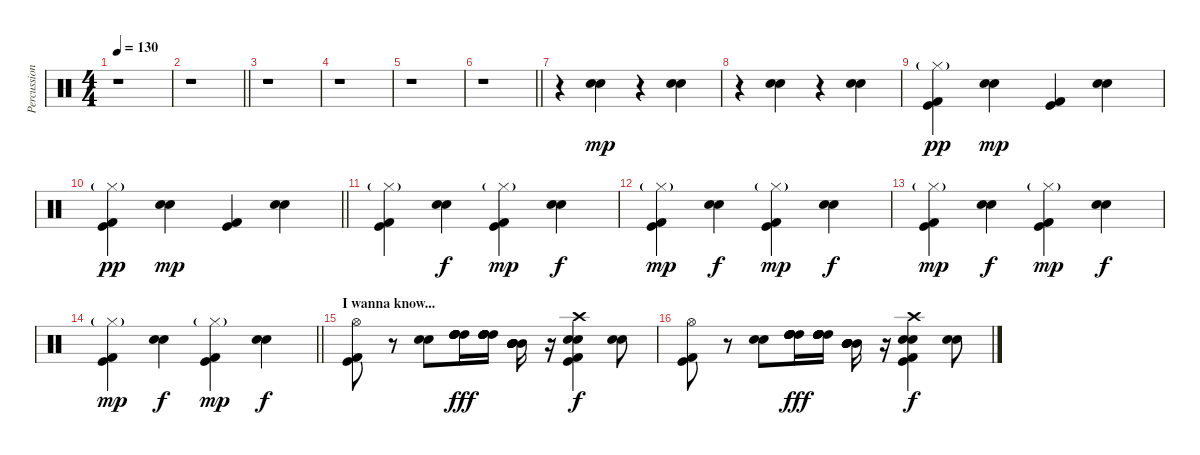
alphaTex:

\track ("Percussion" "Percussion") {instrument percussion}
\staff {score}
\articulation defaults
\ts (4 4)
\tempo 130
\clef neutral
\ks c
r.1{dy f} |
\barLineRight lightlight
r.1 |
r.1 |
r.1 |
r.1 |
\barLineRight lightlight
r.1 |
r.4 ("Snare (hit) 2" "Electric Snare (hit)").4{dy mp} r.4 ("Snare (hit) 2" "Electric Snare (hit)").4 |
r.4 ("Snare (hit) 2" "Electric Snare (hit)").4 r.4 ("Snare (hit) 2" "Electric Snare (hit)").4 |
("Kick (hit) 2" "Kick (hit)" "Hi-Hat (closed)"{g}).4{dy pp} ("Snare (hit) 2" "Electric Snare (hit)").4{dy mp} ("Kick (hit) 2" "Kick (hit)").4 ("Snare (hit) 2" "Electric Snare (hit)").4 |
\barLineRight lightlight
("Kick (hit) 2" "Kick (hit)" "Hi-Hat (closed)"{g}).4{dy pp} ("Snare (hit) 2" "Electric Snare (hit)").4{dy mp} ("Kick (hit) 2" "Kick (hit)").4 ("Snare (hit) 2" "Electric Snare (hit)").4 |
("Kick (hit) 2" "Kick (hit)" "Hi-Hat (closed)"{g}).4 ("Electric Snare (hit)" "Snare (hit) 2").4{dy f} ("Kick (hit) 2" "Kick (hit)" "Hi-Hat (closed)"{g}).4{dy mp} ("Electric Snare (hit)" "Snare (hit) 2").4{dy f} |
("Kick (hit) 2" "Kick (hit)" "Hi-Hat (closed)"{g}).4{dy mp} ("Electric Snare (hit)" "Snare (hit) 2").4{dy f} ("Kick (hit) 2" "Kick (hit)" "Hi-Hat (closed)"{g}).4{dy mp} ("Electric Snare (hit)" "Snare (hit) 2").4{dy f} |
("Kick (hit) 2" "Kick (hit)" "Hi-Hat (closed)"{g}).4{dy mp} ("Electric Snare (hit)" "Snare (hit) 2").4{dy f} ("Kick (hit) 2" "Kick (hit)" "Hi-Hat (closed)"{g}).4{dy mp} ("Electric Snare (hit)" "Snare (hit) 2").4{dy f} |
\barLineRight lightlight
("Kick (hit) 2" "Kick (hit)" "Hi-Hat (closed)"{g}).4{dy mp} ("Electric Snare (hit)" "Snare (hit) 2").4{dy f} ("Kick (hit) 2" "Kick (hit)" "Hi-Hat (closed)"{g}).4{dy mp} ("Electric Snare (hit)" "Snare (hit) 2").4{dy f} |
\section ("" "I wanna know...")
("Kick (hit) 2" "Kick (hit)" "Hi-Hat (open)").8 r.8 ("Snare (hit) 2" "Electric Snare (hit)").8 ("High Tom (hit)" "High Tom (hit)" "High Tom (hit)" "High Tom (hit)" "High Tom (hit)" "High Tom (hit)").16{dy fff} ("High Tom (hit)" "High Tom (hit)" "High Tom (hit)" "High Tom (hit)" "High Tom (hit)" "High Tom (hit)").16 ("Mid Tom (hit)" "Mid Tom (hit)" "Mid Tom (hit)" "Mid Tom (hit)" "Mid Tom (hit)" "Mid Tom (hit)").16 r.16 ("Kick (hit) 2" "Kick (hit)" "Snare (hit) 2" "Electric Snare (hit)" "Crash high (hit)").4{dy f} ("Snare (hit) 2" "Electric Snare (hit)").8 |
("Kick (hit) 2" "Kick (hit)" "Hi-Hat (open)").8 r.8 ("Snare (hit) 2" "Electric Snare (hit)").8 ("High Tom (hit)" "High Tom (hit)" "High Tom (hit)" "High Tom (hit)" "High Tom (hit)" "High Tom (hit)").16{dy fff} ("High Tom (hit)" "High Tom (hit)" "High Tom (hit)" "High Tom (hit)" "High Tom (hit)" "High Tom (hit)").16 ("Mid Tom (hit)" "Mid Tom (hit)" "Mid Tom (hit)" "Mid Tom (hit)" "Mid Tom (hit)" "Mid Tom (hit)").16 r.16 ("Kick (hit) 2" "Kick (hit)" "Snare (hit) 2" "Electric Snare (hit)" "Crash high (hit)").4{dy f} ("Snare (hit) 2" "Electric Snare (hit)").8
